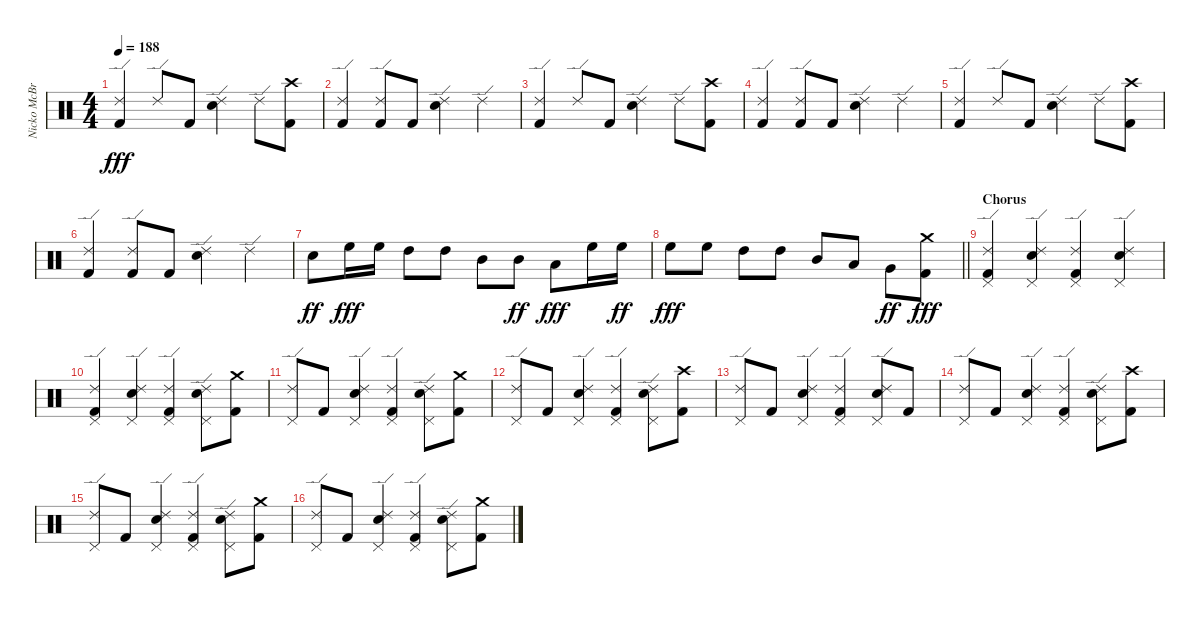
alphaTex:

\track ("Nicko McBrain" "Nicko McBr") {instrument percussion}
\staff {score}
\articulation defaults
\ts (4 4)
\tempo 188
\clef neutral
\ks c
("Ride (edge) 2" "Kick (hit) 2").4{dy fff} "Ride (edge) 2".8 "Kick (hit) 2".8 ("Ride (edge) 2" "Electric Snare (hit)").4 "Ride (edge) 2".8 ("Crash high (hit)" "Kick (hit) 2").8 |
("Ride (edge) 2" "Kick (hit) 2").4 ("Ride (edge) 2" "Kick (hit) 2").8 "Kick (hit) 2".8 ("Ride (edge) 2" "Electric Snare (hit)").4 "Ride (edge) 2".4 |
("Ride (edge) 2" "Kick (hit) 2").4 "Ride (edge) 2".8 "Kick (hit) 2".8 ("Ride (edge) 2" "Electric Snare (hit)").4 "Ride (edge) 2".8 ("Crash high (hit)" "Kick (hit) 2").8 |
("Ride (edge) 2" "Kick (hit) 2").4 ("Ride (edge) 2" "Kick (hit) 2").8 "Kick (hit) 2".8 ("Ride (edge) 2" "Electric Snare (hit)").4 "Ride (edge) 2".4 |
("Ride (edge) 2" "Kick (hit) 2").4 "Ride (edge) 2".8 "Kick (hit) 2".8 ("Ride (edge) 2" "Electric Snare (hit)").4 "Ride (edge) 2".8 ("Crash high (hit)" "Kick (hit) 2").8 |
("Ride (edge) 2" "Kick (hit) 2").4 ("Ride (edge) 2" "Kick (hit) 2").8 "Kick (hit) 2".8 ("Ride (edge) 2" "Electric Snare (hit)").4 "Ride (edge) 2".4 |
"Electric Snare (hit)".8{dy ff} "High Floor Tom (hit)".16{dy fff} "High Floor Tom (hit)".16 "High Tom (hit)".8 "High Tom (hit)".8 "Mid Tom (hit)".8 "Mid Tom (hit)".8{dy ff} "Low Tom (hit)".8{dy fff} "High Floor Tom (hit)".16 "High Floor Tom (hit)".16{dy ff} |
\barLineRight lightlight "High Floor Tom (hit)".8{dy fff} "High Floor Tom (hit)".8 "High Tom (hit)".8 "High Tom (hit)".8 "Mid Tom (hit)".8 "Low Tom (hit)".8 "Very Low Tom (hit)".8{dy ff}
("Crash medium (hit)" "Kick (hit) 2").8{dy fff} |
\section ("" "Chorus")
("Ride (edge) 2" "Pedal Hi-Hat (hit)" "Kick (hit) 2").4 ("Ride (edge) 2" "Electric Snare (hit)" "Pedal Hi-Hat (hit)").4 ("Ride (edge) 2" "Pedal Hi-Hat (hit)" "Kick (hit) 2").4 ("Ride (edge) 2" "Electric Snare (hit)" "Pedal Hi-Hat (hit)").4 |
("Ride (edge) 2" "Pedal Hi-Hat (hit)" "Kick (hit) 2").4 ("Ride (edge) 2" "Electric Snare (hit)" "Pedal Hi-Hat (hit)").4 ("Ride (edge) 2" "Pedal Hi-Hat (hit)" "Kick (hit) 2").4 ("Ride (edge) 2" "Electric Snare (hit)" "Pedal Hi-Hat (hit)").8 ("Crash medium (hit)" "Kick (hit) 2").8 |
("Ride (edge) 2" "Pedal Hi-Hat (hit)").8 "Kick (hit) 2".8 ("Ride (edge) 2" "Electric Snare (hit)" "Pedal Hi-Hat (hit)").4 ("Ride (edge) 2" "Pedal Hi-Hat (hit)" "Kick (hit) 2").4 ("Ride (edge) 2" "Electric Snare (hit)" "Pedal Hi-Hat (hit)").8 ("Crash medium (hit)" "Kick (hit) 2").8 |
("Ride (edge) 2" "Pedal Hi-Hat (hit)").8 "Kick (hit) 2".8 ("Ride (edge) 2" "Electric Snare (hit)" "Pedal Hi-Hat (hit)").4 ("Ride (edge) 2" "Pedal Hi-Hat (hit)" "Kick (hit) 2").4 ("Ride (edge) 2" "Electric Snare (hit)" "Pedal Hi-Hat (hit)").8 ("Crash high (hit)" "Kick (hit) 2").8 |
("Ride (edge) 2" "Pedal Hi-Hat (hit)").8 "Kick (hit) 2".8 ("Ride (edge) 2" "Electric Snare (hit)" "Pedal Hi-Hat (hit)").4 ("Ride (edge) 2" "Pedal Hi-Hat (hit)" "Kick (hit) 2").4 ("Ride (edge) 2" "Electric Snare (hit)" "Pedal Hi-Hat (hit)").8 "Kick (hit) 2".8 |
("Ride (edge) 2" "Pedal Hi-Hat (hit)").8 "Kick (hit) 2".8 ("Ride (edge) 2" "Electric Snare (hit)" "Pedal Hi-Hat (hit)").4 ("Ride (edge) 2" "Pedal Hi-Hat (hit)" "Kick (hit) 2").4 ("Ride (edge) 2" "Electric Snare (hit)" "Pedal Hi-Hat (hit)").8 ("Crash high (hit)" "Kick (hit) 2").8 |
("Ride (edge) 2" "Pedal Hi-Hat (hit)").8 "Kick (hit) 2".8 ("Ride (edge) 2" "Electric Snare (hit)" "Pedal Hi-Hat (hit)").4 ("Ride (edge) 2" "Pedal Hi-Hat (hit)" "Kick (hit) 2").4 ("Ride (edge) 2" "Electric Snare (hit)" "Pedal Hi-Hat (hit)").8 ("Crash medium (hit)" "Kick (hit) 2").8 |
("Ride (edge) 2" "Pedal Hi-Hat (hit)").8 "Kick (hit) 2".8 ("Ride (edge) 2" "Electric Snare (hit)" "Pedal Hi-Hat (hit)").4 ("Ride (edge) 2" "Pedal Hi-Hat (hit)" "Kick (hit) 2").4 ("Ride (edge) 2" "Electric Snare (hit)" "Pedal Hi-Hat (hit)").8 ("Crash medium (hit)" "Kick (hit) 2").8
